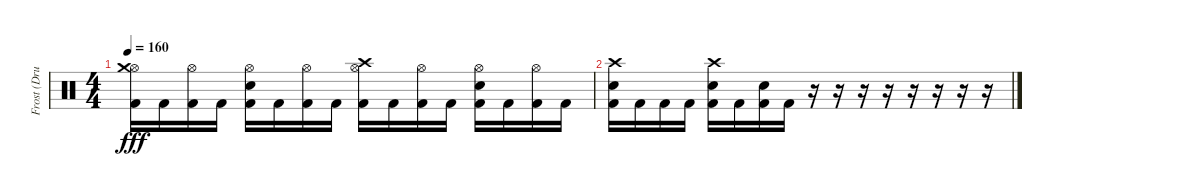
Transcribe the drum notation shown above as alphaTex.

\track ("Frost (Drums)" "Frost (Dru") {instrument percussion}
\staff {score}
\articulation defaults
\ts (4 4)
\tempo 160
\clef neutral
\ks c
("Hi-Hat (open)" "Crash medium (hit)" "Kick (hit) 2").16{dy fff} "Kick (hit) 2".16 ("Hi-Hat (open)" "Kick (hit) 2").16 "Kick (hit) 2".16 ("Hi-Hat (open)" "Snare (hit) 2" "Kick (hit) 2").16 "Kick (hit) 2".16 ("Hi-Hat (open)" "Kick (hit) 2").16 "Kick (hit) 2".16 ("Hi-Hat (open)" "Crash high (hit)" "Kick (hit) 2").16 "Kick (hit) 2".16 ("Hi-Hat (open)" "Kick (hit) 2").16 "Kick (hit) 2".16 ("Hi-Hat (open)" "Snare (hit) 2" "Kick (hit) 2").16 "Kick (hit) 2".16 ("Hi-Hat (open)" "Kick (hit) 2").16 "Kick (hit) 2".16 |
("Crash high (hit)" "Snare (hit) 2" "Kick (hit) 2").16 "Kick (hit) 2".16 "Kick (hit) 2".16 "Kick (hit) 2".16 ("Crash high (hit)" "Snare (hit) 2" "Kick (hit) 2").16 "Kick (hit) 2".16 ("Snare (hit) 2" "Kick (hit) 2").16 "Kick (hit) 2".16 r.16 r.16 r.16 r.16 r.16 r.16 r.16 r.16
